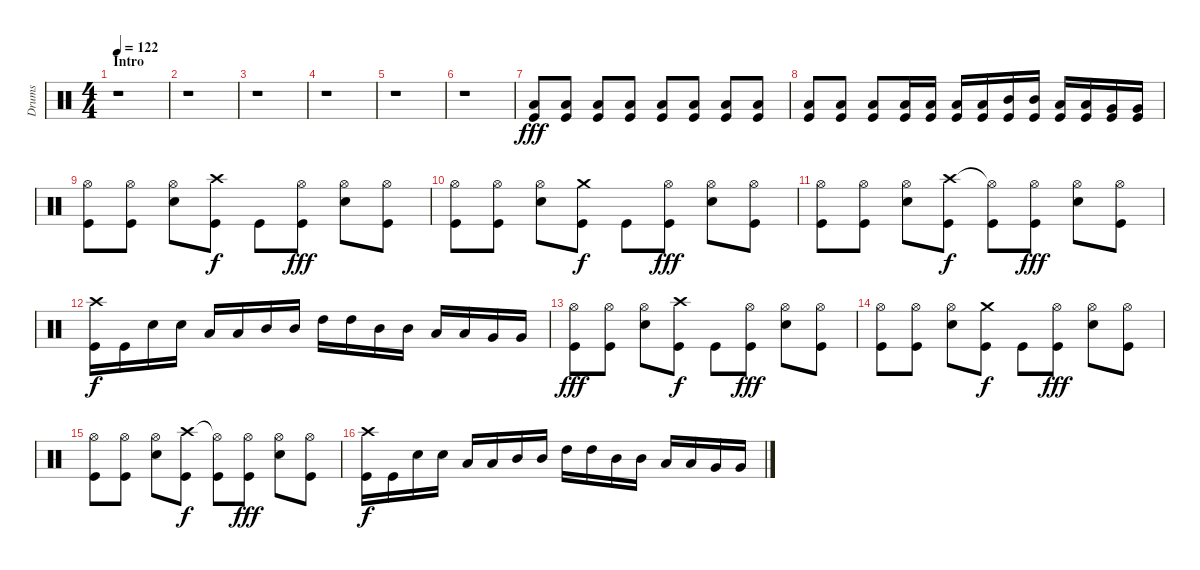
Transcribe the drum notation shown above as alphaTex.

\track ("Drums" "Drums") {instrument percussion}
\staff {score}
\articulation defaults
\ts (4 4)
\section ("" "Intro")
\tempo 122
\clef neutral
\ks c
r.1{dy fff} |
r.1 |
r.1 |
r.1 |
r.1 |
r.1 |
("Low Tom (hit)" "Kick (hit)").8 ("Low Tom (hit)" "Kick (hit)").8 ("Low Tom (hit)" "Kick (hit)").8 ("Low Tom (hit)" "Kick (hit)").8 ("Low Tom (hit)" "Kick (hit)").8 ("Low Tom (hit)" "Kick (hit)").8 ("Low Tom (hit)" "Kick (hit)").8 ("Low Tom (hit)" "Kick (hit)").8 |
("Low Tom (hit)" "Kick (hit)").8 ("Low Tom (hit)" "Kick (hit)").8 ("Low Tom (hit)" "Kick (hit)").8 ("Low Tom (hit)" "Kick (hit)").16 ("Low Tom (hit)" "Kick (hit)").16 ("Low Tom (hit)" "Kick (hit)").16 ("Low Tom (hit)" "Kick (hit)").16 ("Mid Tom (hit)" "Kick (hit)").16 ("Mid Tom (hit)" "Kick (hit)").16 ("Low Tom (hit)" "Kick (hit)").16 ("Low Tom (hit)" "Kick (hit)").16 ("Very Low Tom (hit)" "Kick (hit)").16 ("Very Low Tom (hit)" "Kick (hit)").16 |
("Hi-Hat (open)" "Kick (hit)").8 ("Hi-Hat (open)" "Kick (hit)").8 ("Hi-Hat (open)" "Snare (hit) 2").8 ("Crash high (hit)" "Kick (hit)").8{dy f} "Kick (hit)".8 ("Hi-Hat (open)" "Kick (hit)").8{dy fff} ("Hi-Hat (open)" "Snare (hit) 2").8 ("Hi-Hat (open)" "Kick (hit)").8 |
("Hi-Hat (open)" "Kick (hit)").8 ("Hi-Hat (open)" "Kick (hit)").8 ("Hi-Hat (open)" "Snare (hit) 2").8 ("Crash medium (hit)" "Kick (hit)").8{dy f} "Kick (hit)".8 ("Hi-Hat (open)" "Kick (hit)").8{dy fff} ("Hi-Hat (open)" "Snare (hit) 2").8 ("Hi-Hat (open)" "Kick (hit)").8 |
("Hi-Hat (open)" "Kick (hit)").8 ("Hi-Hat (open)" "Kick (hit)").8 ("Hi-Hat (open)" "Snare (hit) 2").8 ("Crash high (hit)" "Kick (hit)").8{dy f} ("Hi-Hat (open)"{t} "Kick (hit)").8 ("Hi-Hat (open)" "Kick (hit)").8{dy fff} ("Hi-Hat (open)" "Snare (hit) 2").8 ("Hi-Hat (open)" "Kick (hit)").8 |
("Crash high (hit)" "Kick (hit)").16{dy f} "Kick (hit)".16 "Snare (hit) 2".16 "Snare (hit) 2".16 "Low Tom (hit)".16 "Low Tom (hit)".16 "Mid Tom (hit)".16 "Mid Tom (hit)".16 "High Tom (hit)".16 "High Tom (hit)".16 "Mid Tom (hit)".16 "Mid Tom (hit)".16 "Low Tom (hit)".16 "Low Tom (hit)".16 "Very Low Tom (hit)".16 "Very Low Tom (hit)".16 |
("Hi-Hat (open)" "Kick (hit)").8{dy fff} ("Hi-Hat (open)" "Kick (hit)").8 ("Hi-Hat (open)" "Snare (hit) 2").8 ("Crash high (hit)" "Kick (hit)").8{dy f} "Kick (hit)".8 ("Hi-Hat (open)" "Kick (hit)").8{dy fff} ("Hi-Hat (open)" "Snare (hit) 2").8 ("Hi-Hat (open)" "Kick (hit)").8 |
("Hi-Hat (open)" "Kick (hit)").8 ("Hi-Hat (open)" "Kick (hit)").8 ("Hi-Hat (open)" "Snare (hit) 2").8 ("Crash medium (hit)" "Kick (hit)").8{dy f} "Kick (hit)".8 ("Hi-Hat (open)" "Kick (hit)").8{dy fff} ("Hi-Hat (open)" "Snare (hit) 2").8 ("Hi-Hat (open)" "Kick (hit)").8 |
("Hi-Hat (open)" "Kick (hit)").8 ("Hi-Hat (open)" "Kick (hit)").8 ("Hi-Hat (open)" "Snare (hit) 2").8 ("Crash high (hit)" "Kick (hit)").8{dy f} ("Hi-Hat (open)"{t} "Kick (hit)").8 ("Hi-Hat (open)" "Kick (hit)").8{dy fff} ("Hi-Hat (open)" "Snare (hit) 2").8 ("Hi-Hat (open)" "Kick (hit)").8 |
("Crash high (hit)" "Kick (hit)").16{dy f} "Kick (hit)".16 "Snare (hit) 2".16 "Snare (hit) 2".16 "Low Tom (hit)".16 "Low Tom (hit)".16 "Mid Tom (hit)".16 "Mid Tom (hit)".16 "High Tom (hit)".16 "High Tom (hit)".16 "Mid Tom (hit)".16 "Mid Tom (hit)".16 "Low Tom (hit)".16 "Low Tom (hit)".16 "Very Low Tom (hit)".16 "Very Low Tom (hit)".16
